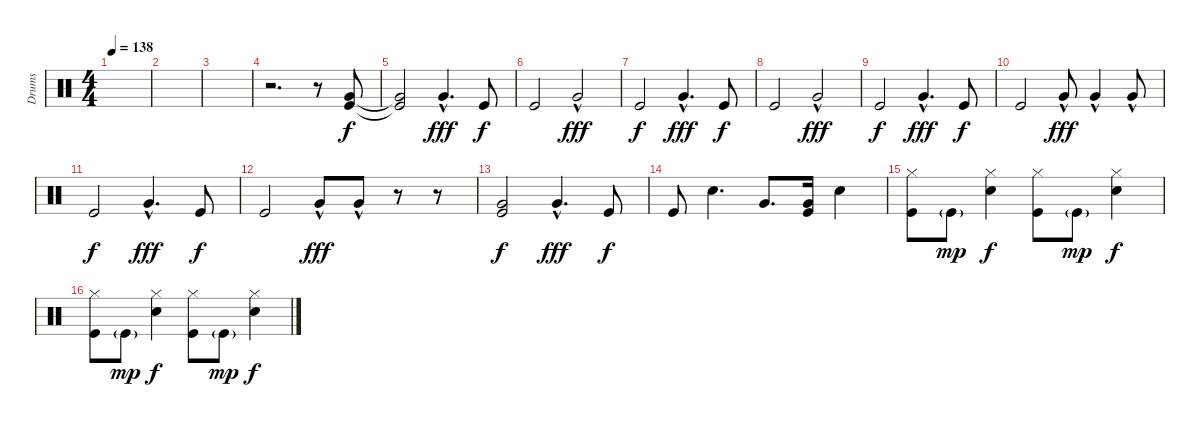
\track ("Drums" "Drums") {instrument percussion}
\staff {score}
\articulation defaults
\ts (4 4)
\tempo 138
\clef neutral
\ks c
|
|
|
r.2{d} r.8 ("Very Low Tom (hit)" "Kick (hit)").8{dy f} |
("Very Low Tom (hit)"{t} "Kick (hit)"{t}).2 "Very Low Tom (hit)"{hac}.4{d dy fff} "Kick (hit)".8{dy f} |
"Kick (hit)".2 "Very Low Tom (hit)"{hac}.2{dy fff} |
"Kick (hit)".2{dy f} "Very Low Tom (hit)"{hac}.4{d dy fff} "Kick (hit)".8{dy f} |
"Kick (hit)".2 "Very Low Tom (hit)"{hac}.2{dy fff} |
"Kick (hit)".2{dy f} "Very Low Tom (hit)"{hac}.4{d dy fff} "Kick (hit)".8{dy f} |
"Kick (hit)".2 "Very Low Tom (hit)"{hac}.8{dy fff} "Very Low Tom (hit)"{hac}.4 "Very Low Tom (hit)"{hac}.8 |
"Kick (hit)".2{dy f} "Very Low Tom (hit)"{hac}.4{d dy fff} "Kick (hit)".8{dy f} |
"Kick (hit)".2 "Very Low Tom (hit)"{hac}.8{dy fff} "Very Low Tom (hit)"{hac}.8 r.8 r.8 |
("Very Low Tom (hit)" "Kick (hit)").2{dy f} "Very Low Tom (hit)"{hac}.4{d dy fff} "Kick (hit)".8{dy f} |
"Kick (hit)".8 "Electric Snare (hit)".4{d} "Very Low Tom (hit)".8{d} ("Very Low Tom (hit)" "Kick (hit)").16 "Electric Snare (hit)".4 |
("Hi-Hat (closed)" "Kick (hit)").8 "Kick (hit)"{g}.8{dy mp} ("Hi-Hat (closed)" "Electric Snare (hit)").4{dy f} ("Hi-Hat (closed)" "Kick (hit)").8 "Kick (hit)"{g}.8{dy mp} ("Hi-Hat (closed)" "Electric Snare (hit)").4{dy f} |
("Hi-Hat (closed)" "Kick (hit)").8 "Kick (hit)"{g}.8{dy mp} ("Hi-Hat (closed)" "Electric Snare (hit)").4{dy f} ("Hi-Hat (closed)" "Kick (hit)").8 "Kick (hit)"{g}.8{dy mp} ("Hi-Hat (closed)" "Electric Snare (hit)").4{dy f}
